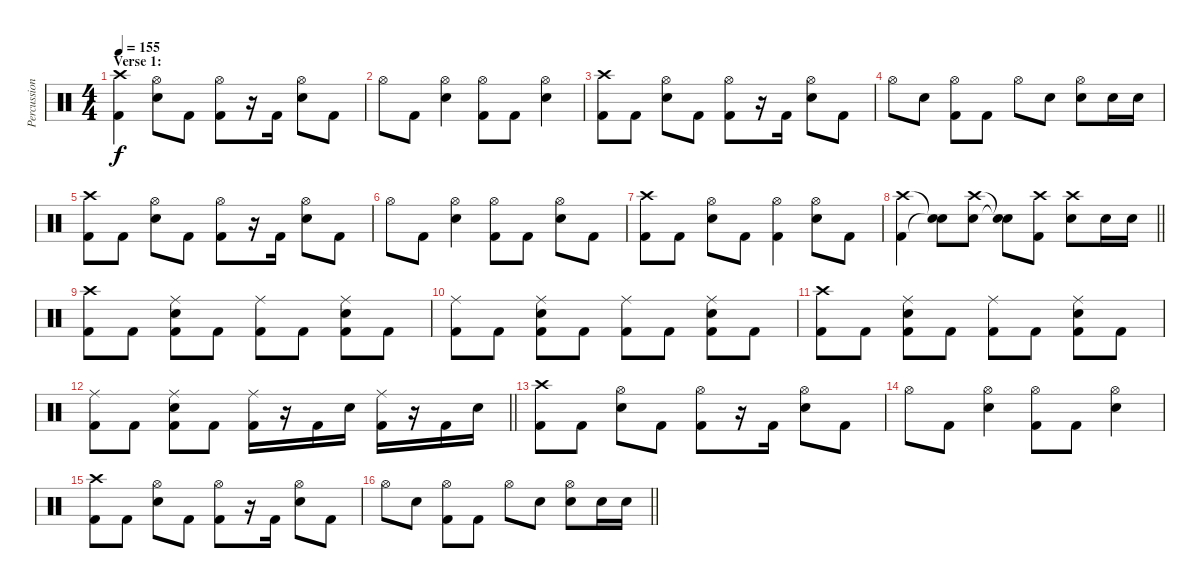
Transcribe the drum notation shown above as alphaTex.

\track ("Percussion" "Percussion") {instrument percussion}
\staff {score}
\articulation defaults
\ts (4 4)
\section ("" "Verse 1:")
\tempo 155
\clef neutral
\ks c
("Crash high (hit)" "Kick (hit) 2").4{dy f} ("Hi-Hat (open)" "Electric Snare (hit)").8 "Kick (hit) 2".8 ("Hi-Hat (open)" "Kick (hit) 2").8 r.16 "Kick (hit) 2".16 ("Hi-Hat (open)" "Electric Snare (hit)").8 "Kick (hit) 2".8 |
"Hi-Hat (open)".8 "Kick (hit) 2".8 ("Hi-Hat (open)" "Electric Snare (hit)").4 ("Hi-Hat (open)" "Kick (hit) 2").8 "Kick (hit) 2".8 ("Hi-Hat (open)" "Electric Snare (hit)").4 |
("Crash high (hit)" "Kick (hit) 2").8 "Kick (hit) 2".8 ("Hi-Hat (open)" "Electric Snare (hit)").8 "Kick (hit) 2".8 ("Hi-Hat (open)" "Kick (hit) 2").8 r.16 "Kick (hit) 2".16 ("Hi-Hat (open)" "Electric Snare (hit)").8 "Kick (hit) 2".8 |
"Hi-Hat (open)".8 "Electric Snare (hit)".8 ("Hi-Hat (open)" "Kick (hit) 2").8 "Kick (hit) 2".8 "Hi-Hat (open)".8 "Electric Snare (hit)".8 ("Hi-Hat (open)" "Electric Snare (hit)").8 "Electric Snare (hit)".16 "Electric Snare (hit)".16 |
("Crash high (hit)" "Kick (hit) 2").8 "Kick (hit) 2".8 ("Hi-Hat (open)" "Electric Snare (hit)").8 "Kick (hit) 2".8 ("Hi-Hat (open)" "Kick (hit) 2").8 r.16 "Kick (hit) 2".16 ("Hi-Hat (open)" "Electric Snare (hit)").8 "Kick (hit) 2".8 |
"Hi-Hat (open)".8 "Kick (hit) 2".8 ("Hi-Hat (open)" "Electric Snare (hit)").4 ("Hi-Hat (open)" "Kick (hit) 2").8 "Kick (hit) 2".8 ("Hi-Hat (open)" "Electric Snare (hit)").8 "Kick (hit) 2".8 |
("Crash high (hit)" "Kick (hit) 2").8 "Kick (hit) 2".8 ("Hi-Hat (open)" "Electric Snare (hit)").8 "Kick (hit) 2".8 ("Hi-Hat (open)" "Kick (hit) 2").4 ("Hi-Hat (open)" "Electric Snare (hit)").8 "Kick (hit) 2".8 |
\barLineRight lightlight
("Crash high (hit)" "Kick (hit) 2").4 ("Snare (hit)"{t} "Snare (hit)"{t}).8 ("Crash high (hit)" "Electric Snare (hit)").8 ("Snare (hit)"{t} "Snare (hit)"{t}).8 ("Crash high (hit)" "Kick (hit) 2").8 ("Crash high (hit)" "Electric Snare (hit)").8 "Electric Snare (hit)".16 "Electric Snare (hit)".16 |
("Crash high (hit)" "Kick (hit) 2").8 "Kick (hit) 2".8 ("Ride (middle)" "Snare (hit) 2" "Kick (hit) 2").8 "Kick (hit) 2".8 ("Ride (middle)" "Kick (hit) 2").8 "Kick (hit) 2".8 ("Ride (middle)" "Snare (hit) 2" "Kick (hit) 2").8 "Kick (hit) 2".8 |
("Ride (middle)" "Kick (hit) 2").8 "Kick (hit) 2".8 ("Ride (middle)" "Snare (hit) 2" "Kick (hit) 2").8 "Kick (hit) 2".8 ("Ride (middle)" "Kick (hit) 2").8 "Kick (hit) 2".8 ("Ride (middle)" "Snare (hit) 2" "Kick (hit) 2").8 "Kick (hit) 2".8 |
("Crash high (hit)" "Kick (hit) 2").8 "Kick (hit) 2".8 ("Ride (middle)" "Snare (hit) 2" "Kick (hit) 2").8 "Kick (hit) 2".8 ("Ride (middle)" "Kick (hit) 2").8 "Kick (hit) 2".8 ("Ride (middle)" "Snare (hit) 2" "Kick (hit) 2").8 "Kick (hit) 2".8 |
\barLineRight lightlight
("Ride (middle)" "Kick (hit) 2").8 "Kick (hit) 2".8 ("Ride (middle)" "Snare (hit) 2" "Kick (hit) 2").8 "Kick (hit) 2".8 ("Ride (middle)" "Kick (hit) 2").16 r.16 "Kick (hit) 2".16 "Snare (hit) 2".16 ("Ride (middle)" "Kick (hit) 2").16 r.16 "Kick (hit) 2".16 "Snare (hit) 2".16 |
("Crash high (hit)" "Kick (hit) 2").8 "Kick (hit) 2".8 ("Hi-Hat (open)" "Electric Snare (hit)").8 "Kick (hit) 2".8 ("Hi-Hat (open)" "Kick (hit) 2").8 r.16 "Kick (hit) 2".16 ("Hi-Hat (open)" "Electric Snare (hit)").8 "Kick (hit) 2".8 |
"Hi-Hat (open)".8 "Kick (hit) 2".8 ("Hi-Hat (open)" "Electric Snare (hit)").4 ("Hi-Hat (open)" "Kick (hit) 2").8 "Kick (hit) 2".8 ("Hi-Hat (open)" "Electric Snare (hit)").4 |
("Crash high (hit)" "Kick (hit) 2").8 "Kick (hit) 2".8 ("Hi-Hat (open)" "Electric Snare (hit)").8 "Kick (hit) 2".8 ("Hi-Hat (open)" "Kick (hit) 2").8 r.16 "Kick (hit) 2".16 ("Hi-Hat (open)" "Electric Snare (hit)").8 "Kick (hit) 2".8 |
\barLineRight lightlight "Hi-Hat (open)".8 "Electric Snare (hit)".8
("Hi-Hat (open)" "Kick (hit) 2").8 "Kick (hit) 2".8 "Hi-Hat (open)".8 "Electric Snare (hit)".8 ("Hi-Hat (open)" "Electric Snare (hit)").8 "Electric Snare (hit)".16 "Electric Snare (hit)".16
